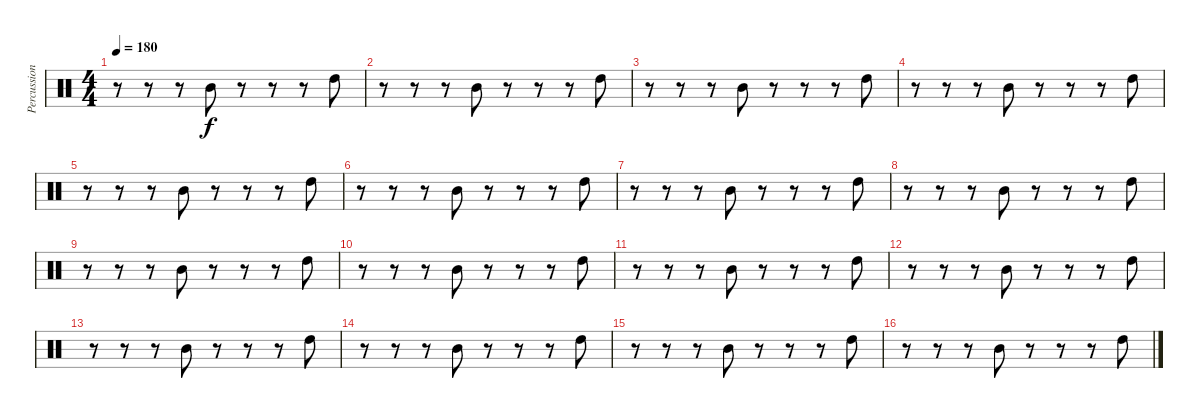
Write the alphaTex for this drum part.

\track ("Percussions" "Percussion") {instrument percussion}
\staff {score}
\articulation defaults
\ts (4 4)
\tempo 180
\clef neutral
\ks c
r.8{dy f} r.8 r.8 "Mid Tom (hit)".8 r.8 r.8 r.8 "High Tom (hit)".8 |
r.8 r.8 r.8 "Mid Tom (hit)".8 r.8 r.8 r.8 "High Tom (hit)".8 |
r.8 r.8 r.8 "Mid Tom (hit)".8 r.8 r.8 r.8 "High Tom (hit)".8 |
r.8 r.8 r.8 "Mid Tom (hit)".8 r.8 r.8 r.8 "High Tom (hit)".8 |
r.8 r.8 r.8 "Mid Tom (hit)".8 r.8 r.8 r.8 "High Tom (hit)".8 |
r.8 r.8 r.8 "Mid Tom (hit)".8 r.8 r.8 r.8 "High Tom (hit)".8 |
r.8 r.8 r.8 "Mid Tom (hit)".8 r.8 r.8 r.8 "High Tom (hit)".8 |
r.8 r.8 r.8 "Mid Tom (hit)".8 r.8 r.8 r.8 "High Tom (hit)".8 |
r.8 r.8 r.8 "Mid Tom (hit)".8 r.8 r.8 r.8 "High Tom (hit)".8 |
r.8 r.8 r.8 "Mid Tom (hit)".8 r.8 r.8 r.8 "High Tom (hit)".8 |
r.8 r.8 r.8 "Mid Tom (hit)".8 r.8 r.8 r.8 "High Tom (hit)".8 |
r.8 r.8 r.8 "Mid Tom (hit)".8 r.8 r.8 r.8 "High Tom (hit)".8 |
r.8 r.8 r.8 "Mid Tom (hit)".8 r.8 r.8 r.8 "High Tom (hit)".8 |
r.8 r.8 r.8 "Mid Tom (hit)".8 r.8 r.8 r.8 "High Tom (hit)".8 |
r.8 r.8 r.8 "Mid Tom (hit)".8 r.8 r.8 r.8 "High Tom (hit)".8 |
r.8 r.8 r.8 "Mid Tom (hit)".8 r.8 r.8 r.8 "High Tom (hit)".8
